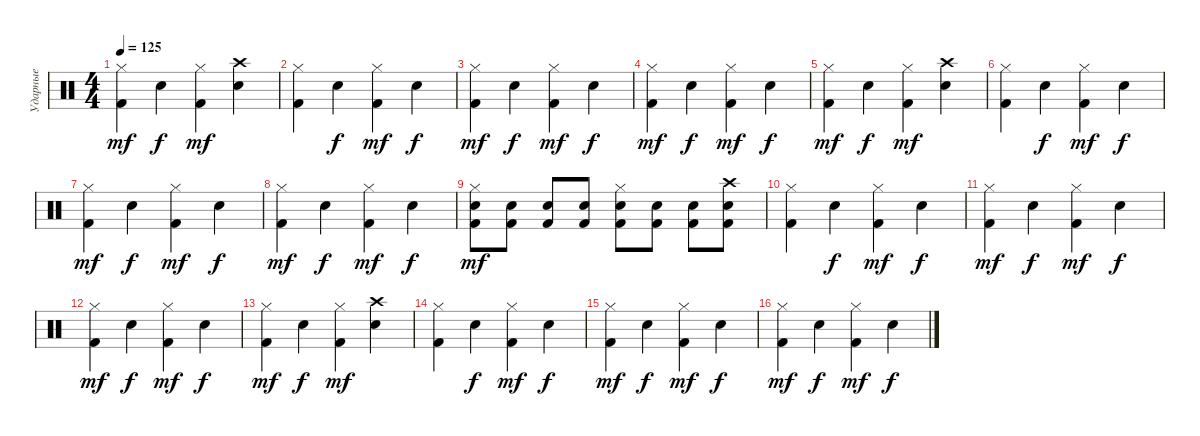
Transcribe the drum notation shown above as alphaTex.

\track ("Ударные" "Ударные") {instrument percussion}
\staff {score}
\articulation defaults
\ts (4 4)
\tempo 125
\clef neutral
\ks c
("Hi-Hat (closed)" "Kick (hit) 2").4{dy mf} "Electric Snare (hit)".4{dy f} ("Hi-Hat (closed)" "Kick (hit) 2").4{dy mf} ("Crash high (hit)" "Electric Snare (hit)").4 |
("Hi-Hat (closed)" "Kick (hit) 2").4 "Electric Snare (hit)".4{dy f} ("Hi-Hat (closed)" "Kick (hit) 2").4{dy mf} "Electric Snare (hit)".4{dy f} |
("Hi-Hat (closed)" "Kick (hit) 2").4{dy mf} "Electric Snare (hit)".4{dy f} ("Hi-Hat (closed)" "Kick (hit) 2").4{dy mf} "Electric Snare (hit)".4{dy f} |
("Hi-Hat (closed)" "Kick (hit) 2").4{dy mf} "Electric Snare (hit)".4{dy f} ("Hi-Hat (closed)" "Kick (hit) 2").4{dy mf} "Electric Snare (hit)".4{dy f} |
("Hi-Hat (closed)" "Kick (hit) 2").4{dy mf} "Electric Snare (hit)".4{dy f} ("Hi-Hat (closed)" "Kick (hit) 2").4{dy mf} ("Crash high (hit)" "Electric Snare (hit)").4 |
("Hi-Hat (closed)" "Kick (hit) 2").4 "Electric Snare (hit)".4{dy f} ("Hi-Hat (closed)" "Kick (hit) 2").4{dy mf} "Electric Snare (hit)".4{dy f} |
("Hi-Hat (closed)" "Kick (hit) 2").4{dy mf} "Electric Snare (hit)".4{dy f} ("Hi-Hat (closed)" "Kick (hit) 2").4{dy mf} "Electric Snare (hit)".4{dy f} |
("Hi-Hat (closed)" "Kick (hit) 2").4{dy mf} "Electric Snare (hit)".4{dy f} ("Hi-Hat (closed)" "Kick (hit) 2").4{dy mf} "Electric Snare (hit)".4{dy f} |
("Electric Snare (hit)" "Hi-Hat (closed)" "Kick (hit) 2").8{dy mf} ("Electric Snare (hit)" "Kick (hit) 2").8 ("Electric Snare (hit)" "Kick (hit) 2").8 ("Electric Snare (hit)" "Kick (hit) 2").8 ("Electric Snare (hit)" "Hi-Hat (closed)" "Kick (hit) 2").8 ("Electric Snare (hit)" "Kick (hit) 2").8 ("Electric Snare (hit)" "Kick (hit) 2").8 ("Crash high (hit)" "Electric Snare (hit)" "Kick (hit) 2").8 |
("Hi-Hat (closed)" "Kick (hit) 2").4 "Electric Snare (hit)".4{dy f} ("Hi-Hat (closed)" "Kick (hit) 2").4{dy mf} "Electric Snare (hit)".4{dy f} |
("Hi-Hat (closed)" "Kick (hit) 2").4{dy mf} "Electric Snare (hit)".4{dy f} ("Hi-Hat (closed)" "Kick (hit) 2").4{dy mf} "Electric Snare (hit)".4{dy f} |
("Hi-Hat (closed)" "Kick (hit) 2").4{dy mf} "Electric Snare (hit)".4{dy f} ("Hi-Hat (closed)" "Kick (hit) 2").4{dy mf} "Electric Snare (hit)".4{dy f} |
("Hi-Hat (closed)" "Kick (hit) 2").4{dy mf} "Electric Snare (hit)".4{dy f} ("Hi-Hat (closed)" "Kick (hit) 2").4{dy mf} ("Crash high (hit)" "Electric Snare (hit)").4 |
("Hi-Hat (closed)" "Kick (hit) 2").4 "Electric Snare (hit)".4{dy f} ("Hi-Hat (closed)" "Kick (hit) 2").4{dy mf} "Electric Snare (hit)".4{dy f} |
("Hi-Hat (closed)" "Kick (hit) 2").4{dy mf} "Electric Snare (hit)".4{dy f} ("Hi-Hat (closed)" "Kick (hit) 2").4{dy mf} "Electric Snare (hit)".4{dy f} |
("Hi-Hat (closed)" "Kick (hit) 2").4{dy mf} "Electric Snare (hit)".4{dy f} ("Hi-Hat (closed)" "Kick (hit) 2").4{dy mf} "Electric Snare (hit)".4{dy f}
